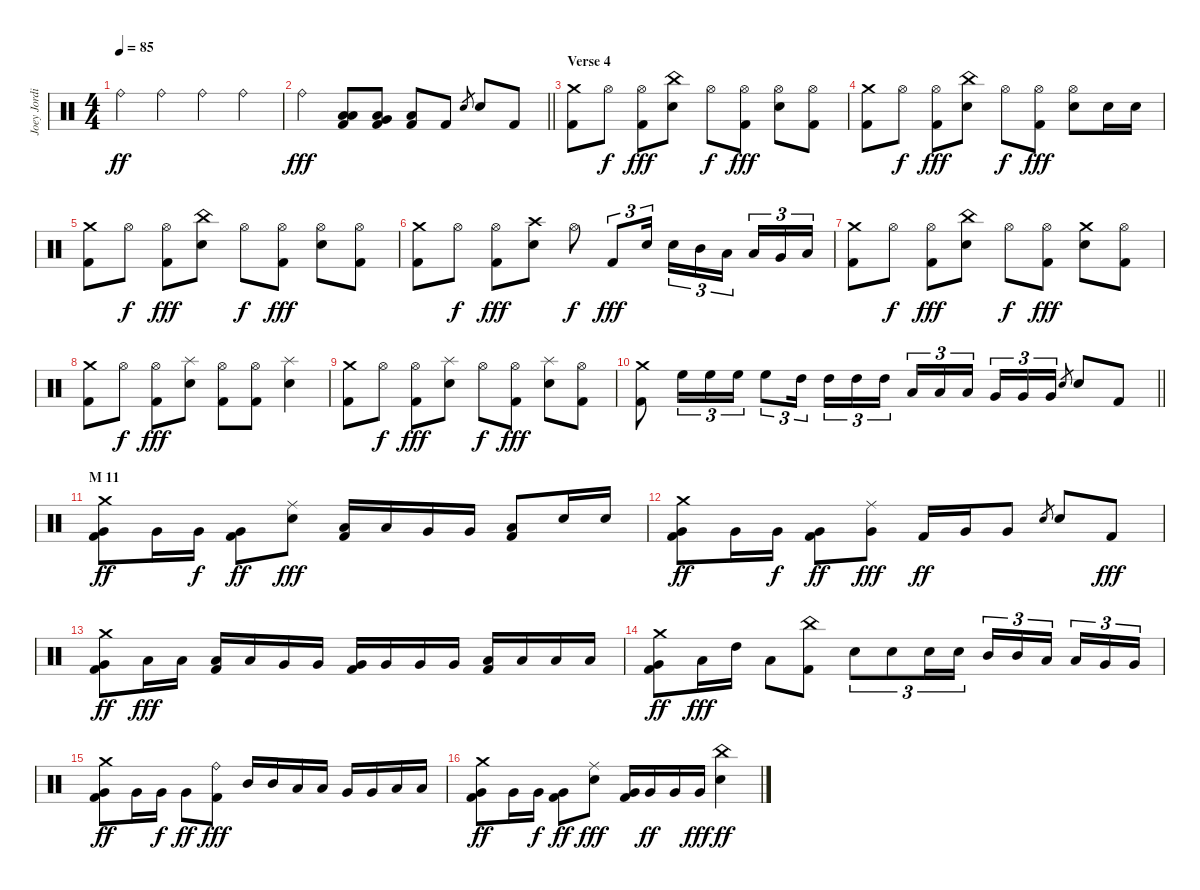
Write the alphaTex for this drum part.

\track ("Joey Jordison" "Joey Jordi") {instrument percussion}
\staff {score}
\articulation defaults
\ts (4 4)
\tempo 85
\clef neutral
\ks c "Ride (bell)".4{dy ff} "Ride (bell)".4 "Ride (bell)".4 "Ride (bell)".4
|
\barLineRight lightlight "Ride (bell)".4{dy fff}
("Low Tom (hit)" "Low Floor Tom (hit)" "Kick (hit) 2").8 ("Very Low Tom (hit)" "Low Floor Tom (hit)" "Kick (hit) 2").8 ("Low Floor Tom (hit)" "Kick (hit) 2").8 "Kick (hit) 2".8 "Electric Snare (hit)".8{gr} "Electric Snare (hit)".8 "Kick (hit) 2".8 |
\section ("" "Verse 4")
("Crash medium (hit)" "Kick (hit) 2").8 "Hi-Hat (open)".8{dy f} ("Hi-Hat (open)" "Kick (hit) 2").8{dy fff} ("China (hit)" "Electric Snare (hit)").8 "Hi-Hat (open)".8{dy f} ("Hi-Hat (open)" "Kick (hit) 2").8{dy fff} ("Hi-Hat (open)" "Electric Snare (hit)").8 ("Hi-Hat (open)" "Kick (hit) 2").8 |
("Crash medium (hit)" "Kick (hit) 2").8 "Hi-Hat (open)".8{dy f} ("Hi-Hat (open)" "Kick (hit) 2").8{dy fff} ("China (hit)" "Electric Snare (hit)").8 "Hi-Hat (open)".8{dy f} ("Hi-Hat (open)" "Kick (hit) 2").8{dy fff} ("Hi-Hat (open)" "Electric Snare (hit)").8 "Electric Snare (hit)".16 "Electric Snare (hit)".16 |
("Crash medium (hit)" "Kick (hit) 2").8 "Hi-Hat (open)".8{dy f} ("Hi-Hat (open)" "Kick (hit) 2").8{dy fff} ("China (hit)" "Electric Snare (hit)").8 "Hi-Hat (open)".8{dy f} ("Hi-Hat (open)" "Kick (hit) 2").8{dy fff} ("Hi-Hat (open)" "Electric Snare (hit)").8 ("Hi-Hat (open)" "Kick (hit) 2").8 |
("Crash medium (hit)" "Kick (hit) 2").8 "Hi-Hat (open)".8{dy f} ("Hi-Hat (open)" "Kick (hit) 2").8{dy fff} ("Crash high (hit)" "Electric Snare (hit)").8 "Hi-Hat (open)".8{dy f} "Kick (hit) 2".8{tu (3 2) dy fff} "Electric Snare (hit)".16{tu (3 2)} "Electric Snare (hit)".16{tu (3 2)} "Mid Tom (hit)".16{tu (3 2)} "Low Tom (hit)".16{tu (3 2) beam splitsecondary} "Low Tom (hit)".16{tu (3 2)} "Very Low Tom (hit)".16{tu (3 2)} "Low Floor Tom (hit)".16{tu (3 2)} |
("Crash medium (hit)" "Kick (hit) 2").8 "Hi-Hat (open)".8{dy f} ("Hi-Hat (open)" "Kick (hit) 2").8{dy fff} ("China (hit)" "Electric Snare (hit)").8 "Hi-Hat (open)".8{dy f} ("Hi-Hat (open)" "Kick (hit) 2").8{dy fff} ("Crash medium (hit)" "Electric Snare (hit)").8 ("Hi-Hat (open)" "Kick (hit) 2").8 |
("Crash medium (hit)" "Kick (hit) 2").8 "Hi-Hat (open)".8{dy f} ("Hi-Hat (open)" "Kick (hit) 2").8{dy fff} ("Splash (hit)" "Electric Snare (hit)").8 ("Hi-Hat (open)" "Kick (hit) 2").8 ("Hi-Hat (open)" "Kick (hit) 2").8 ("Splash (hit)" "Electric Snare (hit)").4 |
("Crash medium (hit)" "Kick (hit) 2").8 "Hi-Hat (open)".8{dy f} ("Hi-Hat (open)" "Kick (hit) 2").8{dy fff} ("Splash (hit)" "Electric Snare (hit)").8 "Hi-Hat (open)".8{dy f} ("Hi-Hat (open)" "Kick (hit) 2").8{dy fff} ("Splash (hit)" "Electric Snare (hit)").8 ("Hi-Hat (open)" "Kick (hit) 2").8 |
\barLineRight lightlight
("Crash medium (hit)" "Kick (hit) 2").8 "High Floor Tom (hit)".16{tu (3 2)} "High Floor Tom (hit)".16{tu (3 2)} "High Floor Tom (hit)".16{tu (3 2)} "High Floor Tom (hit)".8{tu (3 2)} "High Tom (hit)".16{tu (3 2) beam splitsecondary} "High Tom (hit)".16{tu (3 2)} "High Tom (hit)".16{tu (3 2)} "High Tom (hit)".16{tu (3 2)} "Low Tom (hit)".16{tu (3 2)} "Low Tom (hit)".16{tu (3 2)} "Low Tom (hit)".16{tu (3 2) beam splitsecondary} "Very Low Tom (hit)".16{tu (3 2)} "Very Low Tom (hit)".16{tu (3 2)} "Very Low Tom (hit)".16{tu (3 2)} "Electric Snare (hit)".8{gr} "Electric Snare (hit)".8 "Kick (hit) 2".8 |
\section ("" "M 11")
("Crash medium (hit)" "Very Low Tom (hit)" "Kick (hit) 2").8{dy ff} "Very Low Tom (hit)".16 "Very Low Tom (hit)".16{dy f} ("Very Low Tom (hit)" "Kick (hit) 2").8{dy ff} ("Ride (middle)" "Electric Snare (hit)").8{dy fff} ("Low Tom (hit)" "Kick (hit) 2").16 "Low Tom (hit)".16 "Very Low Tom (hit)".16 "Very Low Tom (hit)".16 ("Low Floor Tom (hit)" "Kick (hit) 2").8 "Electric Snare (hit)".16 "Electric Snare (hit)".16 |
("Crash medium (hit)" "Very Low Tom (hit)" "Kick (hit) 2").8{dy ff} "Very Low Tom (hit)".16 "Very Low Tom (hit)".16{dy f} ("Very Low Tom (hit)" "Kick (hit) 2").8{dy ff} ("Ride (middle)" "Very Low Tom (hit)").8{dy fff} "Kick (hit) 2".16{dy ff} "Very Low Tom (hit)".16 "Very Low Tom (hit)".8 "Electric Snare (hit)".8{gr} "Electric Snare (hit)".8 "Kick (hit) 2".8{dy fff} |
("Crash medium (hit)" "Very Low Tom (hit)" "Kick (hit) 2").8{dy ff} "Low Tom (hit)".16{dy fff} "Low Tom (hit)".16 ("Low Tom (hit)" "Kick (hit) 2").16 "Low Tom (hit)".16 "Very Low Tom (hit)".16 "Very Low Tom (hit)".16 ("Very Low Tom (hit)" "Kick (hit) 2").16 "Very Low Tom (hit)".16 "Very Low Tom (hit)".16 "Very Low Tom (hit)".16 ("Low Floor Tom (hit)" "Kick (hit) 2").16 "Low Floor Tom (hit)".16 "Low Floor Tom (hit)".16 "Low Floor Tom (hit)".16 |
("Crash medium (hit)" "Very Low Tom (hit)" "Kick (hit) 2").8{dy ff} "Low Tom (hit)".16{dy fff} "High Tom (hit)".16 "Low Tom (hit)".8 ("China (hit)" "Kick (hit) 2").8 "Electric Snare (hit)".8{tu (3 2)} "Electric Snare (hit)".8{tu (3 2)} "Electric Snare (hit)".16{tu (3 2)} "Electric Snare (hit)".16{tu (3 2)} "Mid Tom (hit)".16{tu (3 2)} "Mid Tom (hit)".16{tu (3 2)} "Low Tom (hit)".16{tu (3 2) beam splitsecondary} "Low Tom (hit)".16{tu (3 2)} "Very Low Tom (hit)".16{tu (3 2)} "Very Low Tom (hit)".16{tu (3 2)} |
("Crash medium (hit)" "Very Low Tom (hit)" "Kick (hit) 2").8{dy ff} "Very Low Tom (hit)".16 "Very Low Tom (hit)".16{dy f} "Very Low Tom (hit)".8{dy ff} ("Ride (bell)" "Kick (hit) 2").8{dy fff} "Mid Tom (hit)".16 "Mid Tom (hit)".16 "Low Tom (hit)".16 "Low Tom (hit)".16 "Very Low Tom (hit)".16 "Very Low Tom (hit)".16 "Low Floor Tom (hit)".16 "Low Floor Tom (hit)".16 |
("Crash medium (hit)" "Very Low Tom (hit)" "Kick (hit) 2").8{dy ff} "Very Low Tom (hit)".16 "Very Low Tom (hit)".16{dy f} ("Very Low Tom (hit)" "Kick (hit) 2").8{dy ff} ("Ride (middle)" "Electric Snare (hit)").8{dy fff} ("Very Low Tom (hit)" "Kick (hit) 2").16 "Very Low Tom (hit)".16{dy ff} "Very Low Tom (hit)".16 "Very Low Tom (hit)".16{dy fff} ("China (hit)" "Electric Snare (hit)").4{dy ff}
